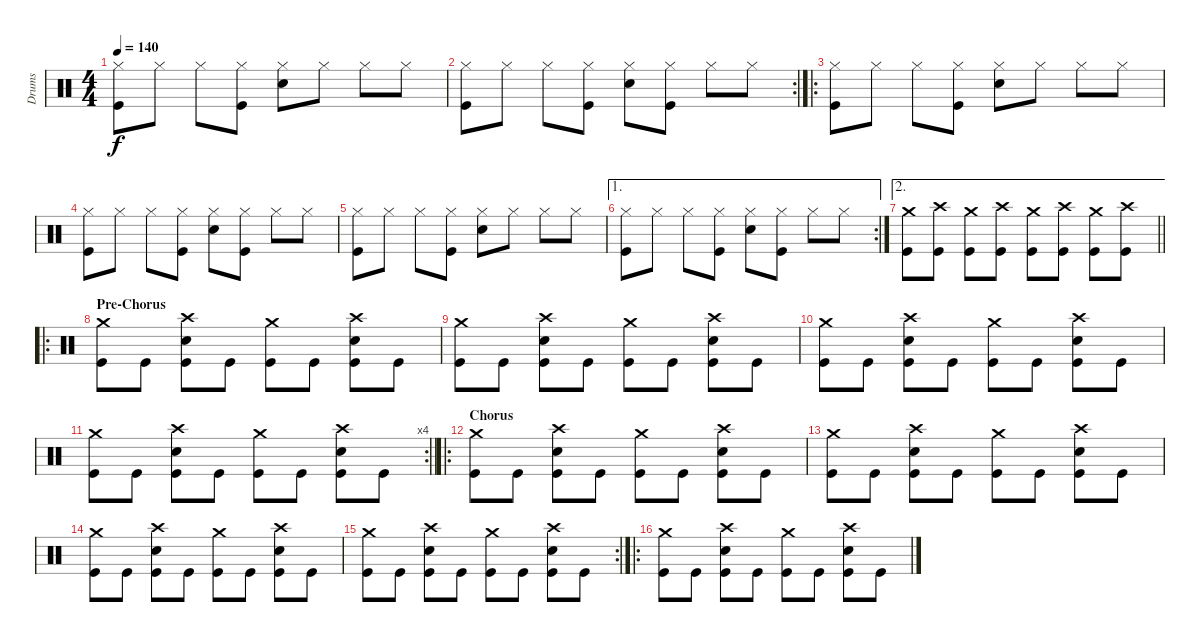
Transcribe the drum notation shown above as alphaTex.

\track ("Drums" "Drums") {instrument percussion}
\staff {score}
\articulation defaults
\ts (4 4)
\tempo 140
\clef neutral
\ks c
("Hi-Hat (closed)" "Kick (hit)").8{dy f} "Hi-Hat (closed)".8 "Hi-Hat (closed)".8 ("Hi-Hat (closed)" "Kick (hit)").8 ("Hi-Hat (closed)" "Snare (hit) 2").8 "Hi-Hat (closed)".8 "Hi-Hat (closed)".8 "Hi-Hat (closed)".8 |
\rc 2
("Hi-Hat (closed)" "Kick (hit)").8 "Hi-Hat (closed)".8 "Hi-Hat (closed)".8 ("Hi-Hat (closed)" "Kick (hit)").8 ("Hi-Hat (closed)" "Snare (hit) 2").8 ("Hi-Hat (closed)" "Kick (hit)").8 "Hi-Hat (closed)".8 "Hi-Hat (closed)".8 |
\ro
("Hi-Hat (closed)" "Kick (hit)").8 "Hi-Hat (closed)".8 "Hi-Hat (closed)".8 ("Hi-Hat (closed)" "Kick (hit)").8 ("Hi-Hat (closed)" "Snare (hit) 2").8 "Hi-Hat (closed)".8 "Hi-Hat (closed)".8 "Hi-Hat (closed)".8 |
("Hi-Hat (closed)" "Kick (hit)").8 "Hi-Hat (closed)".8 "Hi-Hat (closed)".8 ("Hi-Hat (closed)" "Kick (hit)").8 ("Hi-Hat (closed)" "Snare (hit) 2").8 ("Hi-Hat (closed)" "Kick (hit)").8 "Hi-Hat (closed)".8 "Hi-Hat (closed)".8 |
("Hi-Hat (closed)" "Kick (hit)").8 "Hi-Hat (closed)".8 "Hi-Hat (closed)".8 ("Hi-Hat (closed)" "Kick (hit)").8 ("Hi-Hat (closed)" "Snare (hit) 2").8 "Hi-Hat (closed)".8 "Hi-Hat (closed)".8 "Hi-Hat (closed)".8 |
\ae 1
\rc 2
("Hi-Hat (closed)" "Kick (hit)").8 "Hi-Hat (closed)".8 "Hi-Hat (closed)".8 ("Hi-Hat (closed)" "Kick (hit)").8 ("Hi-Hat (closed)" "Snare (hit) 2").8 ("Hi-Hat (closed)" "Kick (hit)").8 "Hi-Hat (closed)".8 "Hi-Hat (closed)".8 |
\ae 2
\barLineRight lightlight
("Crash medium (hit)" "Kick (hit)").8 ("Crash high (hit)" "Kick (hit)").8 ("Crash medium (hit)" "Kick (hit)").8 ("Crash high (hit)" "Kick (hit)").8 ("Crash medium (hit)" "Kick (hit)").8 ("Crash high (hit)" "Kick (hit)").8 ("Crash medium (hit)" "Kick (hit)").8 ("Crash high (hit)" "Kick (hit)").8 |
\ro
\section ("" "Pre-Chorus")
("Crash medium (hit)" "Kick (hit)").8 "Kick (hit)".8 ("Crash high (hit)" "Snare (hit) 2" "Kick (hit)").8 "Kick (hit)".8 ("Crash medium (hit)" "Kick (hit)").8 "Kick (hit)".8 ("Crash high (hit)" "Snare (hit) 2" "Kick (hit)").8 "Kick (hit)".8 |
("Crash medium (hit)" "Kick (hit)").8 "Kick (hit)".8 ("Crash high (hit)" "Snare (hit) 2" "Kick (hit)").8 "Kick (hit)".8 ("Crash medium (hit)" "Kick (hit)").8 "Kick (hit)".8 ("Crash high (hit)" "Snare (hit) 2" "Kick (hit)").8 "Kick (hit)".8 |
("Crash medium (hit)" "Kick (hit)").8 "Kick (hit)".8 ("Crash high (hit)" "Snare (hit) 2" "Kick (hit)").8 "Kick (hit)".8 ("Crash medium (hit)" "Kick (hit)").8 "Kick (hit)".8 ("Crash high (hit)" "Snare (hit) 2" "Kick (hit)").8 "Kick (hit)".8 |
\rc 4
\barLineRight lightlight
("Crash medium (hit)" "Kick (hit)").8 "Kick (hit)".8 ("Crash high (hit)" "Snare (hit) 2" "Kick (hit)").8 "Kick (hit)".8 ("Crash medium (hit)" "Kick (hit)").8 "Kick (hit)".8 ("Crash high (hit)" "Snare (hit) 2" "Kick (hit)").8 "Kick (hit)".8 |
\ro
\section ("" "Chorus")
("Crash medium (hit)" "Kick (hit)").8 "Kick (hit)".8 ("Crash high (hit)" "Snare (hit) 2" "Kick (hit)").8 "Kick (hit)".8 ("Crash medium (hit)" "Kick (hit)").8 "Kick (hit)".8 ("Crash high (hit)" "Snare (hit) 2" "Kick (hit)").8 "Kick (hit)".8 |
("Crash medium (hit)" "Kick (hit)").8 "Kick (hit)".8 ("Crash high (hit)" "Snare (hit) 2" "Kick (hit)").8 "Kick (hit)".8 ("Crash medium (hit)" "Kick (hit)").8 "Kick (hit)".8 ("Crash high (hit)" "Snare (hit) 2" "Kick (hit)").8 "Kick (hit)".8 |
("Crash medium (hit)" "Kick (hit)").8 "Kick (hit)".8 ("Crash high (hit)" "Snare (hit) 2" "Kick (hit)").8 "Kick (hit)".8 ("Crash medium (hit)" "Kick (hit)").8 "Kick (hit)".8 ("Crash high (hit)" "Snare (hit) 2" "Kick (hit)").8 "Kick (hit)".8 |
\rc 2
("Crash medium (hit)" "Kick (hit)").8 "Kick (hit)".8 ("Crash high (hit)" "Snare (hit) 2" "Kick (hit)").8 "Kick (hit)".8 ("Crash medium (hit)" "Kick (hit)").8 "Kick (hit)".8 ("Crash high (hit)" "Snare (hit) 2" "Kick (hit)").8 "Kick (hit)".8 |
\ro
("Crash medium (hit)" "Kick (hit)").8 "Kick (hit)".8 ("Crash high (hit)" "Snare (hit) 2" "Kick (hit)").8 "Kick (hit)".8 ("Crash medium (hit)" "Kick (hit)").8 "Kick (hit)".8 ("Crash high (hit)" "Snare (hit) 2" "Kick (hit)").8 "Kick (hit)".8
